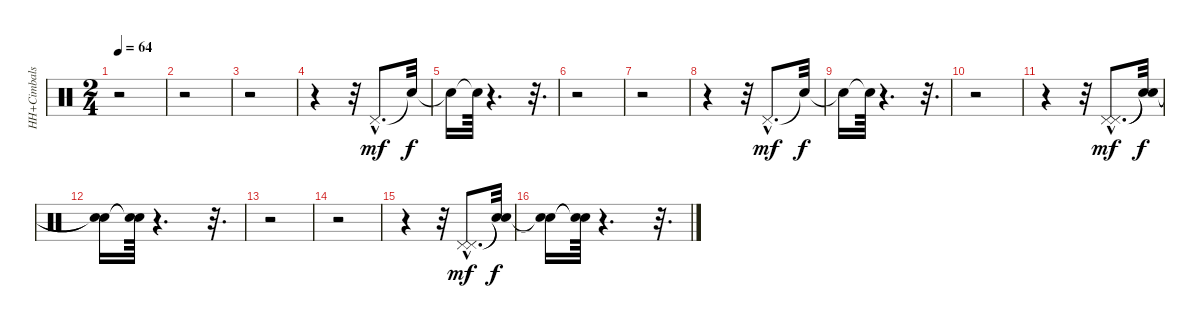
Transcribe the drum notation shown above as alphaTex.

\track ("HH+Cimbals" "HH+Cimbals") {instrument percussion}
\staff {score}
\articulation defaults
\ts (2 4)
\tempo 64
\clef neutral
\ks c
r.2{dy f} |
r.2 |
r.2 |
r.4 r.32 "Pedal Hi-Hat (hit)"{hac}.8{d dy mf} "Snare (hit)"{t}.32{dy f} |
"Snare (hit)"{t}.16 "Snare (hit)"{t}.64 r.4{d} r.32{d} |
r.2 |
r.2 |
r.4 r.32 "Pedal Hi-Hat (hit)"{hac}.8{d dy mf} "Snare (hit)"{t}.32{dy f} |
"Snare (hit)"{t}.16 "Snare (hit)"{t}.64 r.4{d} r.32{d} |
r.2 |
r.4 r.32 ("Pedal Hi-Hat (hit)"{hac} "Pedal Hi-Hat (hit)"{hac}).8{d dy mf} ("Snare (hit)"{t} "Snare (hit)"{t}).32{dy f} |
("Snare (hit)"{t} "Snare (hit)"{t}).16 ("Snare (hit)"{t} "Snare (hit)"{t}).64 r.4{d} r.32{d} |
r.2 |
r.2 |
r.4 r.32 ("Pedal Hi-Hat (hit)"{hac} "Pedal Hi-Hat (hit)"{hac}).8{d dy mf} ("Snare (hit)"{t} "Snare (hit)"{t}).32{dy f} |
("Snare (hit)"{t} "Snare (hit)"{t}).16 ("Snare (hit)"{t} "Snare (hit)"{t}).64 r.4{d} r.32{d}
